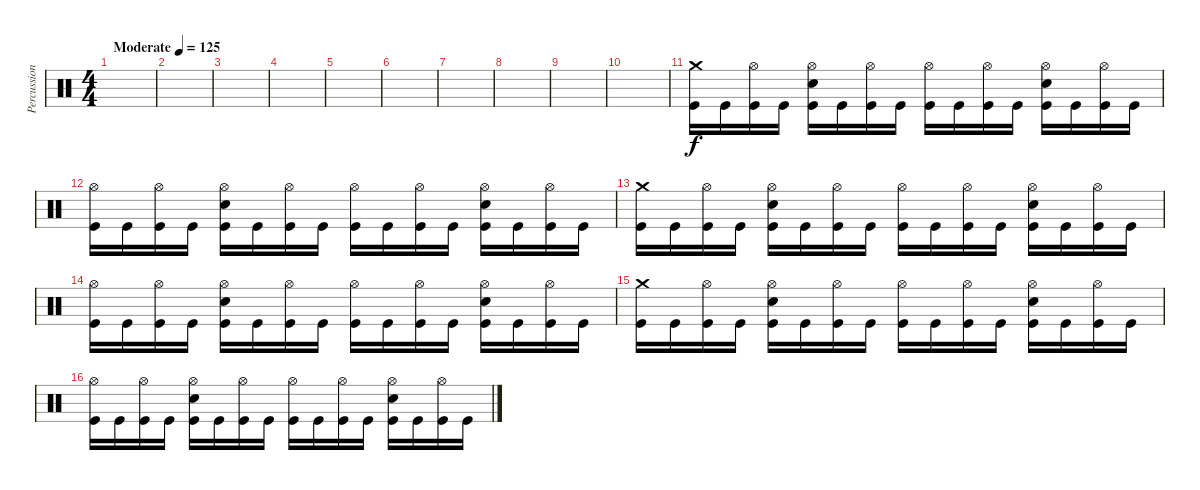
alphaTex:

\track ("Percussion" "Percussion") {instrument percussion}
\staff {score}
\articulation defaults
\ts (4 4)
\tempo (125 "Moderate")
\clef neutral
\ks c
|
|
|
|
|
|
|
|
|
|
("Crash medium (hit)" "Kick (hit)").16 "Kick (hit)".16 ("Hi-Hat (open)" "Kick (hit)").16 "Kick (hit)".16 ("Hi-Hat (open)" "Electric Snare (hit)" "Kick (hit)").16 "Kick (hit)".16 ("Hi-Hat (open)" "Kick (hit)").16 "Kick (hit)".16 ("Hi-Hat (open)" "Kick (hit)").16 "Kick (hit)".16 ("Hi-Hat (open)" "Kick (hit)").16 "Kick (hit)".16 ("Hi-Hat (open)" "Electric Snare (hit)" "Kick (hit)").16 "Kick (hit)".16 ("Hi-Hat (open)" "Kick (hit)").16 "Kick (hit)".16 |
("Hi-Hat (open)" "Kick (hit)").16 "Kick (hit)".16 ("Hi-Hat (open)" "Kick (hit)").16 "Kick (hit)".16 ("Hi-Hat (open)" "Electric Snare (hit)" "Kick (hit)").16 "Kick (hit)".16 ("Hi-Hat (open)" "Kick (hit)").16 "Kick (hit)".16 ("Hi-Hat (open)" "Kick (hit)").16 "Kick (hit)".16 ("Hi-Hat (open)" "Kick (hit)").16 "Kick (hit)".16 ("Hi-Hat (open)" "Electric Snare (hit)" "Kick (hit)").16 "Kick (hit)".16 ("Hi-Hat (open)" "Kick (hit)").16 "Kick (hit)".16 |
("Crash medium (hit)" "Kick (hit)").16 "Kick (hit)".16 ("Hi-Hat (open)" "Kick (hit)").16 "Kick (hit)".16 ("Hi-Hat (open)" "Electric Snare (hit)" "Kick (hit)").16 "Kick (hit)".16 ("Hi-Hat (open)" "Kick (hit)").16 "Kick (hit)".16 ("Hi-Hat (open)" "Kick (hit)").16 "Kick (hit)".16 ("Hi-Hat (open)" "Kick (hit)").16 "Kick (hit)".16 ("Hi-Hat (open)" "Electric Snare (hit)" "Kick (hit)").16 "Kick (hit)".16 ("Hi-Hat (open)" "Kick (hit)").16 "Kick (hit)".16 |
("Hi-Hat (open)" "Kick (hit)").16 "Kick (hit)".16 ("Hi-Hat (open)" "Kick (hit)").16 "Kick (hit)".16 ("Hi-Hat (open)" "Electric Snare (hit)" "Kick (hit)").16 "Kick (hit)".16 ("Hi-Hat (open)" "Kick (hit)").16 "Kick (hit)".16 ("Hi-Hat (open)" "Kick (hit)").16 "Kick (hit)".16 ("Hi-Hat (open)" "Kick (hit)").16 "Kick (hit)".16 ("Hi-Hat (open)" "Electric Snare (hit)" "Kick (hit)").16 "Kick (hit)".16 ("Hi-Hat (open)" "Kick (hit)").16 "Kick (hit)".16 |
("Crash medium (hit)" "Kick (hit)").16 "Kick (hit)".16 ("Hi-Hat (open)" "Kick (hit)").16 "Kick (hit)".16 ("Hi-Hat (open)" "Electric Snare (hit)" "Kick (hit)").16 "Kick (hit)".16 ("Hi-Hat (open)" "Kick (hit)").16 "Kick (hit)".16 ("Hi-Hat (open)" "Kick (hit)").16 "Kick (hit)".16 ("Hi-Hat (open)" "Kick (hit)").16 "Kick (hit)".16 ("Hi-Hat (open)" "Electric Snare (hit)" "Kick (hit)").16 "Kick (hit)".16 ("Hi-Hat (open)" "Kick (hit)").16 "Kick (hit)".16 |
("Hi-Hat (open)" "Kick (hit)").16 "Kick (hit)".16 ("Hi-Hat (open)" "Kick (hit)").16 "Kick (hit)".16 ("Hi-Hat (open)" "Electric Snare (hit)" "Kick (hit)").16 "Kick (hit)".16 ("Hi-Hat (open)" "Kick (hit)").16 "Kick (hit)".16 ("Hi-Hat (open)" "Kick (hit)").16 "Kick (hit)".16 ("Hi-Hat (open)" "Kick (hit)").16 "Kick (hit)".16 ("Hi-Hat (open)" "Electric Snare (hit)" "Kick (hit)").16 "Kick (hit)".16 ("Hi-Hat (open)" "Kick (hit)").16 "Kick (hit)".16
